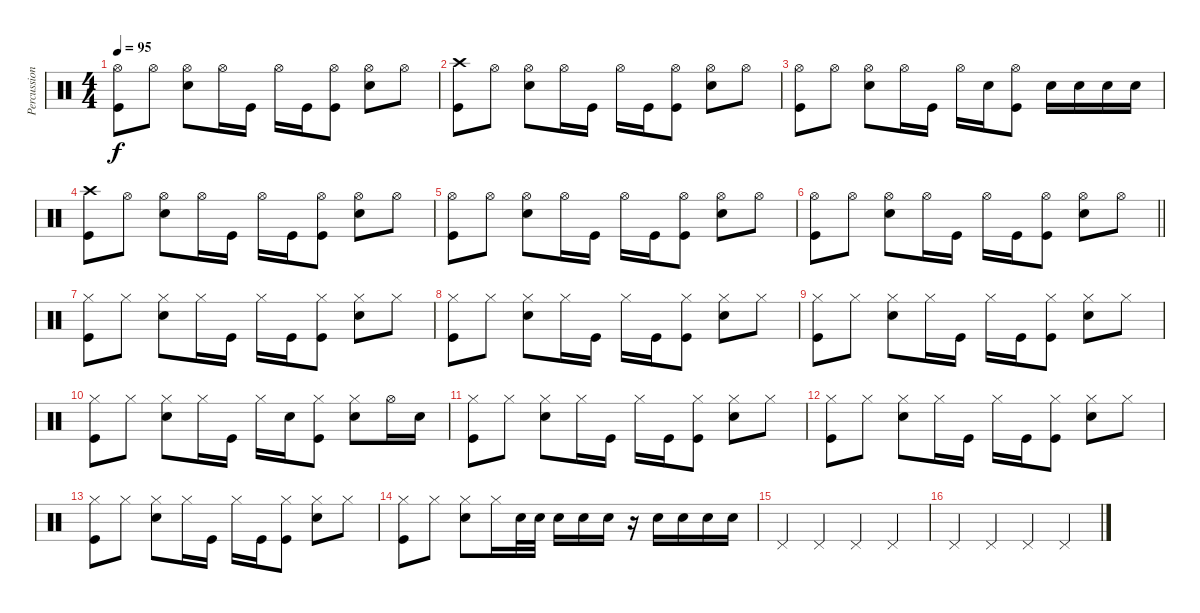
\track ("Percussion" "Percussion") {instrument percussion}
\staff {score}
\articulation defaults
\ts (4 4)
\tempo 95
\clef neutral
\ks c
("Hi-Hat (open)" "Kick (hit)").8{dy f} "Hi-Hat (open)".8 ("Hi-Hat (open)" "Snare (hit) 2").8 "Hi-Hat (open)".16 "Kick (hit)".16 "Hi-Hat (open)".16 "Kick (hit)".16 ("Hi-Hat (open)" "Kick (hit)").8 ("Hi-Hat (open)" "Snare (hit) 2").8 "Hi-Hat (open)".8 |
("Crash high (hit)" "Kick (hit)").8 "Hi-Hat (open)".8 ("Hi-Hat (open)" "Snare (hit) 2").8 "Hi-Hat (open)".16 "Kick (hit)".16 "Hi-Hat (open)".16 "Kick (hit)".16 ("Hi-Hat (open)" "Kick (hit)").8 ("Hi-Hat (open)" "Snare (hit) 2").8 "Hi-Hat (open)".8 |
("Hi-Hat (open)" "Kick (hit)").8 "Hi-Hat (open)".8 ("Hi-Hat (open)" "Snare (hit) 2").8 "Hi-Hat (open)".16 "Kick (hit)".16 "Hi-Hat (open)".16 "Snare (hit) 2".16 ("Hi-Hat (open)" "Kick (hit)").8 "Snare (hit) 2".16 "Snare (hit) 2".16 "Snare (hit) 2".16 "Snare (hit) 2".16 |
("Crash high (hit)" "Kick (hit)").8 "Hi-Hat (open)".8 ("Hi-Hat (open)" "Snare (hit) 2").8 "Hi-Hat (open)".16 "Kick (hit)".16 "Hi-Hat (open)".16 "Kick (hit)".16 ("Hi-Hat (open)" "Kick (hit)").8 ("Hi-Hat (open)" "Snare (hit) 2").8 "Hi-Hat (open)".8 |
("Hi-Hat (open)" "Kick (hit)").8 "Hi-Hat (open)".8 ("Hi-Hat (open)" "Snare (hit) 2").8 "Hi-Hat (open)".16 "Kick (hit)".16 "Hi-Hat (open)".16 "Kick (hit)".16 ("Hi-Hat (open)" "Kick (hit)").8 ("Hi-Hat (open)" "Snare (hit) 2").8 "Hi-Hat (open)".8 |
\barLineRight lightlight
("Hi-Hat (open)" "Kick (hit)").8 "Hi-Hat (open)".8 ("Hi-Hat (open)" "Snare (hit) 2").8 "Hi-Hat (open)".16 "Kick (hit)".16 "Hi-Hat (open)".16 "Kick (hit)".16 ("Hi-Hat (open)" "Kick (hit)").8 ("Hi-Hat (open)" "Snare (hit) 2").8 "Hi-Hat (open)".8 |
("Hi-Hat (closed)" "Kick (hit)").8 "Hi-Hat (closed)".8 ("Hi-Hat (closed)" "Snare (hit) 2").8 "Hi-Hat (closed)".16 "Kick (hit)".16 "Hi-Hat (closed)".16 "Kick (hit)".16 ("Hi-Hat (closed)" "Kick (hit)").8 ("Hi-Hat (closed)" "Snare (hit) 2").8 "Hi-Hat (closed)".8 |
("Hi-Hat (closed)" "Kick (hit)").8 "Hi-Hat (closed)".8 ("Hi-Hat (closed)" "Snare (hit) 2").8 "Hi-Hat (closed)".16 "Kick (hit)".16 "Hi-Hat (closed)".16 "Kick (hit)".16 ("Hi-Hat (closed)" "Kick (hit)").8 ("Hi-Hat (closed)" "Snare (hit) 2").8 "Hi-Hat (closed)".8 |
("Hi-Hat (closed)" "Kick (hit)").8 "Hi-Hat (closed)".8 ("Hi-Hat (closed)" "Snare (hit) 2").8 "Hi-Hat (closed)".16 "Kick (hit)".16 "Hi-Hat (closed)".16 "Kick (hit)".16 ("Hi-Hat (closed)" "Kick (hit)").8 ("Hi-Hat (closed)" "Snare (hit) 2").8 "Hi-Hat (closed)".8 |
("Hi-Hat (closed)" "Kick (hit)").8 "Hi-Hat (closed)".8 ("Hi-Hat (closed)" "Snare (hit) 2").8 "Hi-Hat (closed)".16 "Kick (hit)".16 "Hi-Hat (closed)".16 "Snare (hit) 2".16 ("Hi-Hat (closed)" "Kick (hit)").8 ("Hi-Hat (closed)" "Snare (hit) 2").8 "Hi-Hat (open)".16 "Snare (hit) 2".16 |
("Hi-Hat (closed)" "Kick (hit)").8 "Hi-Hat (closed)".8 ("Hi-Hat (closed)" "Snare (hit) 2").8 "Hi-Hat (closed)".16 "Kick (hit)".16 "Hi-Hat (closed)".16 "Kick (hit)".16 ("Hi-Hat (closed)" "Kick (hit)").8 ("Hi-Hat (closed)" "Snare (hit) 2").8 "Hi-Hat (closed)".8 |
("Hi-Hat (closed)" "Kick (hit)").8 "Hi-Hat (closed)".8 ("Hi-Hat (closed)" "Snare (hit) 2").8 "Hi-Hat (closed)".16 "Kick (hit)".16 "Hi-Hat (closed)".16 "Kick (hit)".16 ("Hi-Hat (closed)" "Kick (hit)").8 ("Hi-Hat (closed)" "Snare (hit) 2").8 "Hi-Hat (closed)".8 |
("Hi-Hat (closed)" "Kick (hit)").8 "Hi-Hat (closed)".8 ("Hi-Hat (closed)" "Snare (hit) 2").8 "Hi-Hat (closed)".16 "Kick (hit)".16 "Hi-Hat (closed)".16 "Kick (hit)".16 ("Hi-Hat (closed)" "Kick (hit)").8 ("Hi-Hat (closed)" "Snare (hit) 2").8 "Hi-Hat (closed)".8 |
("Hi-Hat (closed)" "Kick (hit)").8 "Hi-Hat (closed)".8 ("Hi-Hat (closed)" "Snare (hit) 2").8 "Hi-Hat (closed)".16 "Electric Snare (hit)".32 "Electric Snare (hit)".32 "Electric Snare (hit)".16 "Electric Snare (hit)".16 "Electric Snare (hit)".16 r.16 "Electric Snare (hit)".16 "Electric Snare (hit)".16 "Electric Snare (hit)".16 "Electric Snare (hit)".16 |
"Pedal Hi-Hat (hit)".4 "Pedal Hi-Hat (hit)".4 "Pedal Hi-Hat (hit)".4 "Pedal Hi-Hat (hit)".4 |
"Pedal Hi-Hat (hit)".4 "Pedal Hi-Hat (hit)".4 "Pedal Hi-Hat (hit)".4 "Pedal Hi-Hat (hit)".4
